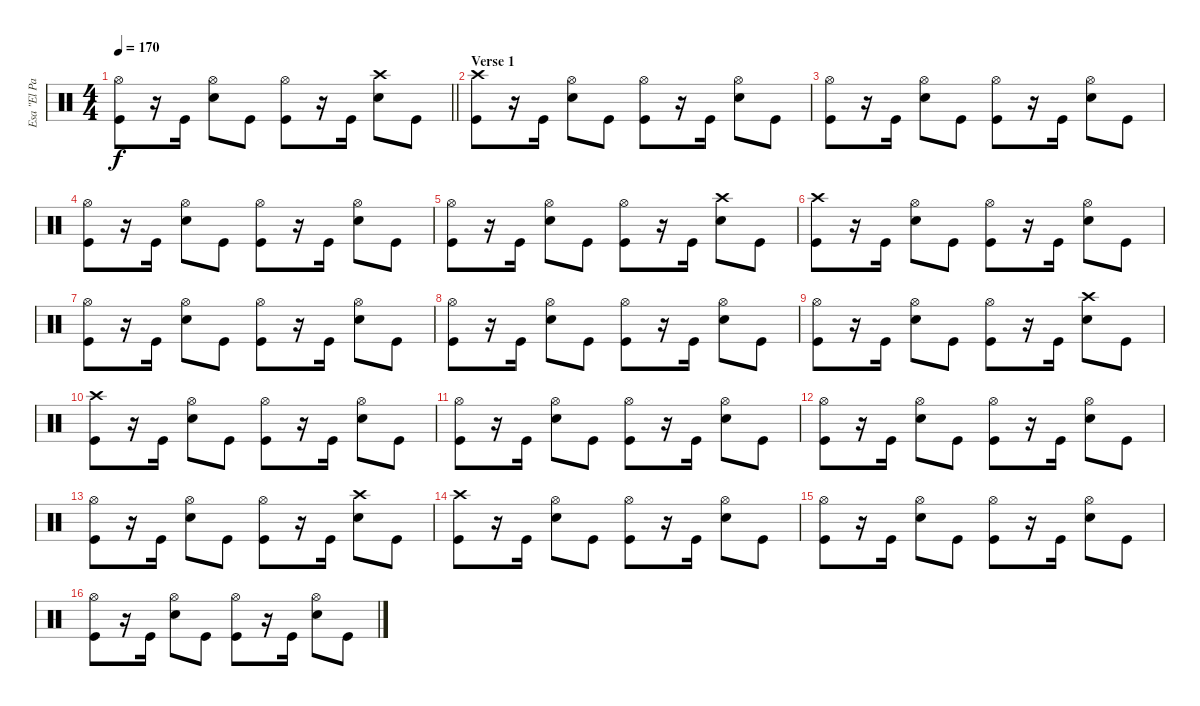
\track ("Esa \"El Pasaderia\" Palosaari" "Esa \"El Pa") {instrument percussion}
\staff {score}
\articulation defaults
\ts (4 4)
\tempo 170
\clef neutral
\barLineRight lightlight
\ks c
("Hi-Hat (open)" "Kick (hit)").8{dy f} r.16 "Kick (hit)".16 ("Hi-Hat (open)" "Snare (hit) 2").8 "Kick (hit)".8 ("Hi-Hat (open)" "Kick (hit)").8 r.16 "Kick (hit)".16 ("Crash high (hit)" "Snare (hit) 2").8 "Kick (hit)".8 |
\section ("" "Verse 1")
("Crash high (hit)" "Kick (hit)").8 r.16 "Kick (hit)".16 ("Hi-Hat (open)" "Snare (hit) 2").8 "Kick (hit)".8 ("Hi-Hat (open)" "Kick (hit)").8 r.16 "Kick (hit)".16 ("Hi-Hat (open)" "Snare (hit) 2").8 "Kick (hit)".8 |
("Hi-Hat (open)" "Kick (hit)").8 r.16 "Kick (hit)".16 ("Hi-Hat (open)" "Snare (hit) 2").8 "Kick (hit)".8 ("Hi-Hat (open)" "Kick (hit)").8 r.16 "Kick (hit)".16 ("Hi-Hat (open)" "Snare (hit) 2").8 "Kick (hit)".8 |
("Hi-Hat (open)" "Kick (hit)").8 r.16 "Kick (hit)".16 ("Hi-Hat (open)" "Snare (hit) 2").8 "Kick (hit)".8 ("Hi-Hat (open)" "Kick (hit)").8 r.16 "Kick (hit)".16 ("Hi-Hat (open)" "Snare (hit) 2").8 "Kick (hit)".8 |
("Hi-Hat (open)" "Kick (hit)").8 r.16 "Kick (hit)".16 ("Hi-Hat (open)" "Snare (hit) 2").8 "Kick (hit)".8 ("Hi-Hat (open)" "Kick (hit)").8 r.16 "Kick (hit)".16 ("Crash high (hit)" "Snare (hit) 2").8 "Kick (hit)".8 |
("Crash high (hit)" "Kick (hit)").8 r.16 "Kick (hit)".16 ("Hi-Hat (open)" "Snare (hit) 2").8 "Kick (hit)".8 ("Hi-Hat (open)" "Kick (hit)").8 r.16 "Kick (hit)".16 ("Hi-Hat (open)" "Snare (hit) 2").8 "Kick (hit)".8 |
("Hi-Hat (open)" "Kick (hit)").8 r.16 "Kick (hit)".16 ("Hi-Hat (open)" "Snare (hit) 2").8 "Kick (hit)".8 ("Hi-Hat (open)" "Kick (hit)").8 r.16 "Kick (hit)".16 ("Hi-Hat (open)" "Snare (hit) 2").8 "Kick (hit)".8 |
("Hi-Hat (open)" "Kick (hit)").8 r.16 "Kick (hit)".16 ("Hi-Hat (open)" "Snare (hit) 2").8 "Kick (hit)".8 ("Hi-Hat (open)" "Kick (hit)").8 r.16 "Kick (hit)".16 ("Hi-Hat (open)" "Snare (hit) 2").8 "Kick (hit)".8 |
("Hi-Hat (open)" "Kick (hit)").8 r.16 "Kick (hit)".16 ("Hi-Hat (open)" "Snare (hit) 2").8 "Kick (hit)".8 ("Hi-Hat (open)" "Kick (hit)").8 r.16 "Kick (hit)".16 ("Crash high (hit)" "Snare (hit) 2").8 "Kick (hit)".8 |
("Crash high (hit)" "Kick (hit)").8 r.16 "Kick (hit)".16 ("Hi-Hat (open)" "Snare (hit) 2").8 "Kick (hit)".8 ("Hi-Hat (open)" "Kick (hit)").8 r.16 "Kick (hit)".16 ("Hi-Hat (open)" "Snare (hit) 2").8 "Kick (hit)".8 |
("Hi-Hat (open)" "Kick (hit)").8 r.16 "Kick (hit)".16 ("Hi-Hat (open)" "Snare (hit) 2").8 "Kick (hit)".8 ("Hi-Hat (open)" "Kick (hit)").8 r.16 "Kick (hit)".16 ("Hi-Hat (open)" "Snare (hit) 2").8 "Kick (hit)".8 |
("Hi-Hat (open)" "Kick (hit)").8 r.16 "Kick (hit)".16 ("Hi-Hat (open)" "Snare (hit) 2").8 "Kick (hit)".8 ("Hi-Hat (open)" "Kick (hit)").8 r.16 "Kick (hit)".16 ("Hi-Hat (open)" "Snare (hit) 2").8 "Kick (hit)".8 |
("Hi-Hat (open)" "Kick (hit)").8 r.16 "Kick (hit)".16 ("Hi-Hat (open)" "Snare (hit) 2").8 "Kick (hit)".8 ("Hi-Hat (open)" "Kick (hit)").8 r.16 "Kick (hit)".16 ("Crash high (hit)" "Snare (hit) 2").8 "Kick (hit)".8 |
("Crash high (hit)" "Kick (hit)").8 r.16 "Kick (hit)".16 ("Hi-Hat (open)" "Snare (hit) 2").8 "Kick (hit)".8 ("Hi-Hat (open)" "Kick (hit)").8 r.16 "Kick (hit)".16 ("Hi-Hat (open)" "Snare (hit) 2").8 "Kick (hit)".8 |
("Hi-Hat (open)" "Kick (hit)").8 r.16 "Kick (hit)".16 ("Hi-Hat (open)" "Snare (hit) 2").8 "Kick (hit)".8 ("Hi-Hat (open)" "Kick (hit)").8 r.16 "Kick (hit)".16 ("Hi-Hat (open)" "Snare (hit) 2").8 "Kick (hit)".8 |
("Hi-Hat (open)" "Kick (hit)").8 r.16 "Kick (hit)".16 ("Hi-Hat (open)" "Snare (hit) 2").8 "Kick (hit)".8 ("Hi-Hat (open)" "Kick (hit)").8 r.16 "Kick (hit)".16 ("Hi-Hat (open)" "Snare (hit) 2").8 "Kick (hit)".8
